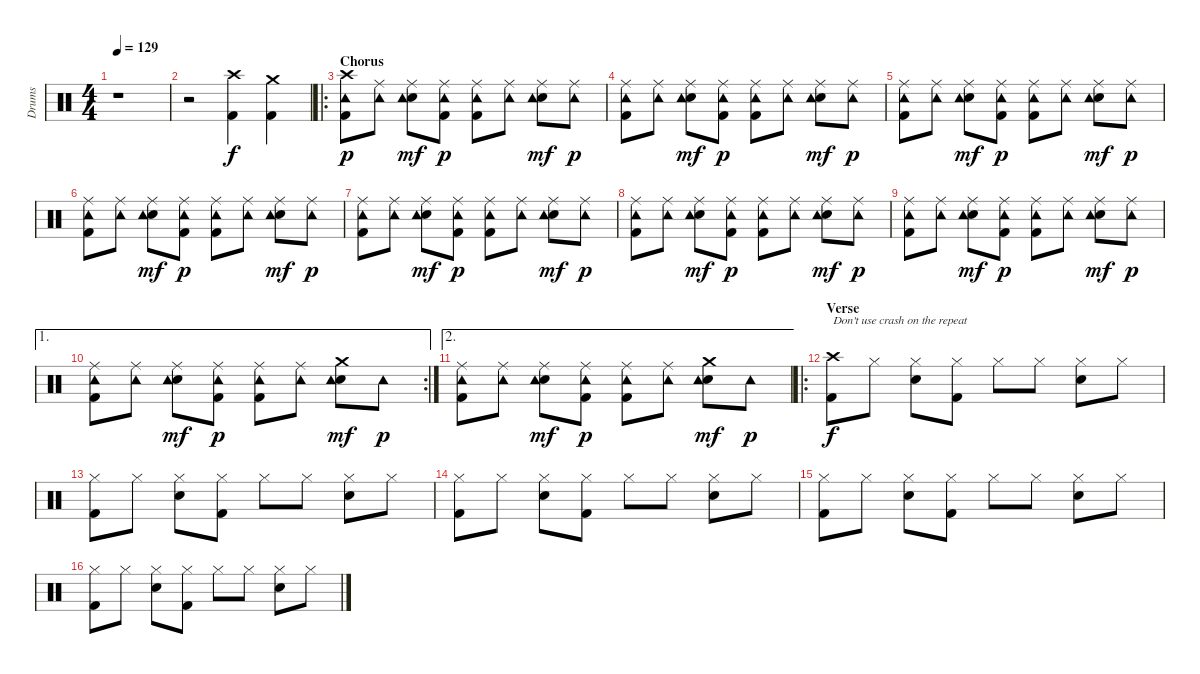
\track ("Drums" "Drums") {instrument percussion}
\staff {score}
\articulation defaults
\ts (4 4)
\tempo 129
\clef neutral
\ks c
r.1{dy f} |
r.2 ("Kick (hit) 2" "Crash high (hit)").4 ("Kick (hit) 2" "Crash medium (hit)").4 |
\ro
\section ("" "Chorus")
("Kick (hit) 2" "Crash high (hit)" "Tambourine (hit)").8{dy p} ("Ride (middle)" "Tambourine (hit)").8 ("Ride (middle)" "Snare (hit) 2" "Tambourine (hit)").8{dy mf} ("Kick (hit) 2" "Ride (middle)" "Tambourine (hit)").8{dy p} ("Kick (hit) 2" "Ride (middle)" "Tambourine (hit)").8 ("Ride (middle)" "Tambourine (hit)").8 ("Ride (middle)" "Snare (hit) 2" "Tambourine (hit)").8{dy mf} ("Ride (middle)" "Tambourine (hit)").8{dy p} |
("Kick (hit) 2" "Ride (middle)" "Tambourine (hit)").8 ("Ride (middle)" "Tambourine (hit)").8 ("Ride (middle)" "Snare (hit) 2" "Tambourine (hit)").8{dy mf} ("Kick (hit) 2" "Ride (middle)" "Tambourine (hit)").8{dy p} ("Kick (hit) 2" "Ride (middle)" "Tambourine (hit)").8 ("Ride (middle)" "Tambourine (hit)").8 ("Ride (middle)" "Snare (hit) 2" "Tambourine (hit)").8{dy mf} ("Ride (middle)" "Tambourine (hit)").8{dy p} |
("Kick (hit) 2" "Ride (middle)" "Tambourine (hit)").8 ("Ride (middle)" "Tambourine (hit)").8 ("Ride (middle)" "Snare (hit) 2" "Tambourine (hit)").8{dy mf} ("Kick (hit) 2" "Ride (middle)" "Tambourine (hit)").8{dy p} ("Kick (hit) 2" "Ride (middle)" "Tambourine (hit)").8 ("Ride (middle)" "Tambourine (hit)").8 ("Ride (middle)" "Snare (hit) 2" "Tambourine (hit)").8{dy mf} ("Ride (middle)" "Tambourine (hit)").8{dy p} |
("Kick (hit) 2" "Ride (middle)" "Tambourine (hit)").8 ("Ride (middle)" "Tambourine (hit)").8 ("Ride (middle)" "Snare (hit) 2" "Tambourine (hit)").8{dy mf} ("Kick (hit) 2" "Ride (middle)" "Tambourine (hit)").8{dy p} ("Kick (hit) 2" "Ride (middle)" "Tambourine (hit)").8 ("Ride (middle)" "Tambourine (hit)").8 ("Ride (middle)" "Snare (hit) 2" "Tambourine (hit)").8{dy mf} ("Ride (middle)" "Tambourine (hit)").8{dy p} |
("Kick (hit) 2" "Ride (middle)" "Tambourine (hit)").8 ("Ride (middle)" "Tambourine (hit)").8 ("Ride (middle)" "Snare (hit) 2" "Tambourine (hit)").8{dy mf} ("Kick (hit) 2" "Ride (middle)" "Tambourine (hit)").8{dy p} ("Kick (hit) 2" "Ride (middle)" "Tambourine (hit)").8 ("Ride (middle)" "Tambourine (hit)").8 ("Ride (middle)" "Snare (hit) 2" "Tambourine (hit)").8{dy mf} ("Ride (middle)" "Tambourine (hit)").8{dy p} |
("Kick (hit) 2" "Ride (middle)" "Tambourine (hit)").8 ("Ride (middle)" "Tambourine (hit)").8 ("Ride (middle)" "Snare (hit) 2" "Tambourine (hit)").8{dy mf} ("Kick (hit) 2" "Ride (middle)" "Tambourine (hit)").8{dy p} ("Kick (hit) 2" "Ride (middle)" "Tambourine (hit)").8 ("Ride (middle)" "Tambourine (hit)").8 ("Ride (middle)" "Snare (hit) 2" "Tambourine (hit)").8{dy mf} ("Ride (middle)" "Tambourine (hit)").8{dy p} |
("Kick (hit) 2" "Ride (middle)" "Tambourine (hit)").8 ("Ride (middle)" "Tambourine (hit)").8 ("Ride (middle)" "Snare (hit) 2" "Tambourine (hit)").8{dy mf} ("Kick (hit) 2" "Ride (middle)" "Tambourine (hit)").8{dy p} ("Kick (hit) 2" "Ride (middle)" "Tambourine (hit)").8 ("Ride (middle)" "Tambourine (hit)").8 ("Ride (middle)" "Snare (hit) 2" "Tambourine (hit)").8{dy mf} ("Ride (middle)" "Tambourine (hit)").8{dy p} |
\ae 1
\rc 2
("Kick (hit) 2" "Ride (middle)" "Tambourine (hit)").8 ("Ride (middle)" "Tambourine (hit)").8 ("Ride (middle)" "Snare (hit) 2" "Tambourine (hit)").8{dy mf} ("Kick (hit) 2" "Ride (middle)" "Tambourine (hit)").8{dy p} ("Kick (hit) 2" "Ride (middle)" "Tambourine (hit)").8 ("Ride (middle)" "Tambourine (hit)").8 ("Crash medium (hit)" "Snare (hit) 2" "Tambourine (hit)").8{dy mf} "Tambourine (hit)".8{dy p} |
\ae 2
("Kick (hit) 2" "Ride (middle)" "Tambourine (hit)").8 ("Ride (middle)" "Tambourine (hit)").8 ("Ride (middle)" "Snare (hit) 2" "Tambourine (hit)").8{dy mf} ("Kick (hit) 2" "Ride (middle)" "Tambourine (hit)").8{dy p} ("Kick (hit) 2" "Ride (middle)" "Tambourine (hit)").8 ("Ride (middle)" "Tambourine (hit)").8 ("Crash medium (hit)" "Snare (hit) 2" "Tambourine (hit)").8{dy mf} "Tambourine (hit)".8{dy p} |
\ro
\section ("" "Verse")
("Kick (hit) 2" "Crash high (hit)").8{txt "Don't use crash on the repeat" dy f} "Hi-Hat (closed)".8 ("Snare (hit) 2" "Hi-Hat (closed)").8 ("Kick (hit) 2" "Hi-Hat (closed)").8 "Hi-Hat (closed)".8 "Hi-Hat (closed)".8 ("Snare (hit) 2" "Hi-Hat (closed)").8 "Hi-Hat (closed)".8 |
("Kick (hit) 2" "Hi-Hat (closed)").8 "Hi-Hat (closed)".8 ("Snare (hit) 2" "Hi-Hat (closed)").8 ("Kick (hit) 2" "Hi-Hat (closed)").8 "Hi-Hat (closed)".8 "Hi-Hat (closed)".8 ("Snare (hit) 2" "Hi-Hat (closed)").8 "Hi-Hat (closed)".8 |
("Kick (hit) 2" "Hi-Hat (closed)").8 "Hi-Hat (closed)".8 ("Snare (hit) 2" "Hi-Hat (closed)").8 ("Kick (hit) 2" "Hi-Hat (closed)").8 "Hi-Hat (closed)".8 "Hi-Hat (closed)".8 ("Snare (hit) 2" "Hi-Hat (closed)").8 "Hi-Hat (closed)".8 |
("Kick (hit) 2" "Hi-Hat (closed)").8 "Hi-Hat (closed)".8 ("Snare (hit) 2" "Hi-Hat (closed)").8 ("Kick (hit) 2" "Hi-Hat (closed)").8 "Hi-Hat (closed)".8 "Hi-Hat (closed)".8 ("Snare (hit) 2" "Hi-Hat (closed)").8 "Hi-Hat (closed)".8 |
("Kick (hit) 2" "Hi-Hat (closed)").8 "Hi-Hat (closed)".8 ("Snare (hit) 2" "Hi-Hat (closed)").8 ("Kick (hit) 2" "Hi-Hat (closed)").8 "Hi-Hat (closed)".8 "Hi-Hat (closed)".8 ("Snare (hit) 2" "Hi-Hat (closed)").8 "Hi-Hat (closed)".8
